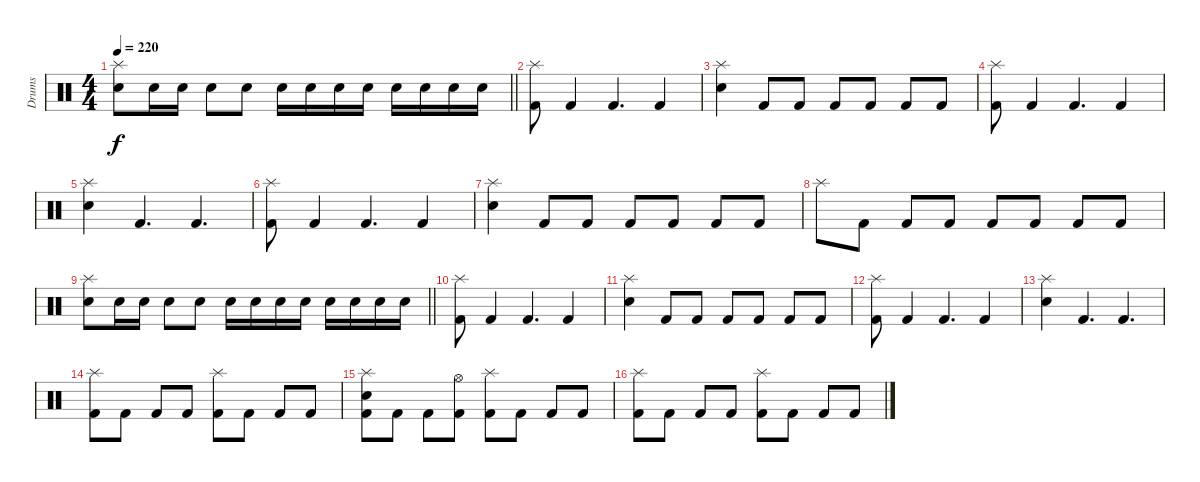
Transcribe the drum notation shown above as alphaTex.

\track ("Drums" "Drums") {instrument percussion}
\staff {score}
\articulation defaults
\ts (4 4)
\tempo 220
\clef neutral
\barLineRight lightlight
\ks c
("Splash (hit)" "Electric Snare (hit)").8{dy f} "Electric Snare (hit)".16 "Electric Snare (hit)".16 "Electric Snare (hit)".8 "Electric Snare (hit)".8 "Electric Snare (hit)".16 "Electric Snare (hit)".16 "Electric Snare (hit)".16 "Electric Snare (hit)".16 "Electric Snare (hit)".16 "Electric Snare (hit)".16 "Electric Snare (hit)".16 "Electric Snare (hit)".16 |
\section ("" "")
("Splash (hit)" "Kick (hit) 2").8{volume 8} "Kick (hit) 2".4 "Kick (hit) 2".4{d} "Kick (hit) 2".4 |
("Splash (hit)" "Electric Snare (hit)").4 "Kick (hit) 2".8 "Kick (hit) 2".8 "Kick (hit) 2".8 "Kick (hit) 2".8 "Kick (hit) 2".8 "Kick (hit) 2".8 |
("Splash (hit)" "Kick (hit) 2").8 "Kick (hit) 2".4 "Kick (hit) 2".4{d} "Kick (hit) 2".4 |
("Splash (hit)" "Electric Snare (hit)").4 "Kick (hit) 2".4{d} "Kick (hit) 2".4{d} |
("Splash (hit)" "Kick (hit) 2").8{volume 5} "Kick (hit) 2".4 "Kick (hit) 2".4{d} "Kick (hit) 2".4 |
("Splash (hit)" "Electric Snare (hit)").4 "Kick (hit) 2".8 "Kick (hit) 2".8 "Kick (hit) 2".8 "Kick (hit) 2".8 "Kick (hit) 2".8 "Kick (hit) 2".8 |
"Splash (hit)".8 "Kick (hit) 2".8 "Kick (hit) 2".8 "Kick (hit) 2".8 "Kick (hit) 2".8 "Kick (hit) 2".8 "Kick (hit) 2".8 "Kick (hit) 2".8 |
\barLineRight lightlight
("Splash (hit)" "Electric Snare (hit)").8 "Electric Snare (hit)".16 "Electric Snare (hit)".16 "Electric Snare (hit)".8 "Electric Snare (hit)".8 "Electric Snare (hit)".16 "Electric Snare (hit)".16 "Electric Snare (hit)".16 "Electric Snare (hit)".16 "Electric Snare (hit)".16 "Electric Snare (hit)".16 "Electric Snare (hit)".16 "Electric Snare (hit)".16 |
\section ("" "")
("Splash (hit)" "Kick (hit) 2").8{volume 3} "Kick (hit) 2".4 "Kick (hit) 2".4{d} "Kick (hit) 2".4 |
("Splash (hit)" "Electric Snare (hit)").4 "Kick (hit) 2".8 "Kick (hit) 2".8 "Kick (hit) 2".8 "Kick (hit) 2".8 "Kick (hit) 2".8 "Kick (hit) 2".8 |
("Splash (hit)" "Kick (hit) 2").8 "Kick (hit) 2".4 "Kick (hit) 2".4{d} "Kick (hit) 2".4 |
("Splash (hit)" "Electric Snare (hit)").4 "Kick (hit) 2".4{d} "Kick (hit) 2".4{d} |
("Splash (hit)" "Kick (hit) 2").8{volume 0} "Kick (hit) 2".8 "Kick (hit) 2".8 "Kick (hit) 2".8 ("Splash (hit)" "Kick (hit) 2").8 "Kick (hit) 2".8 "Kick (hit) 2".8 "Kick (hit) 2".8 |
("Splash (hit)" "Electric Snare (hit)" "Kick (hit) 2").8 "Kick (hit) 2".8 "Kick (hit) 2".8 ("Hi-Hat (open)" "Kick (hit) 2").8 ("Splash (hit)" "Kick (hit) 2").8 "Kick (hit) 2".8 "Kick (hit) 2".8 "Kick (hit) 2".8 |
("Splash (hit)" "Kick (hit) 2").8 "Kick (hit) 2".8 "Kick (hit) 2".8 "Kick (hit) 2".8 ("Splash (hit)" "Kick (hit) 2").8 "Kick (hit) 2".8 "Kick (hit) 2".8 "Kick (hit) 2".8
